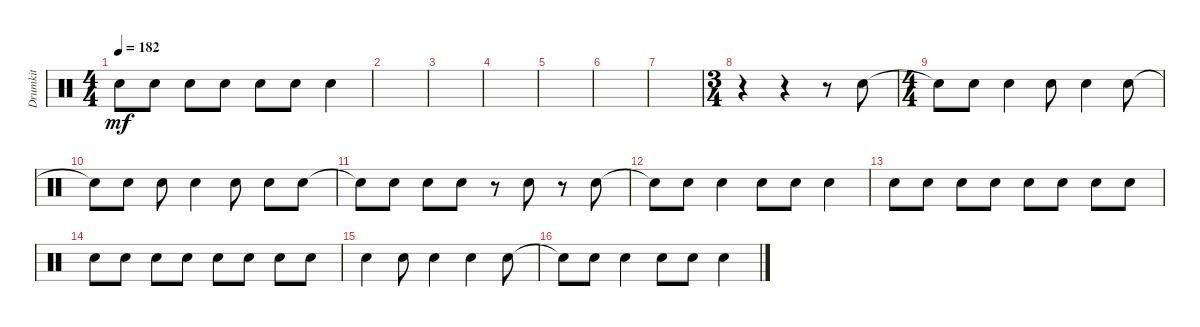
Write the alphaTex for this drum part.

\track ("Drumkit" "Drumkit") {instrument percussion}
\staff {score}
\articulation defaults
\ts (4 4)
\tempo 182
\clef neutral
\ks c "Snare (hit)".8{dy mf} "Snare (hit)".8 "Snare (hit)".8 "Snare (hit)".8 "Snare (hit)".8 "Snare (hit)".8 "Snare (hit)".4
|
|
|
|
|
|
|
\ts (3 4)
r.4 r.4 r.8 "Snare (hit)".8 |
\ts (4 4)
"Snare (hit)"{t}.8 "Snare (hit)".8 "Snare (hit)".4 "Snare (hit)".8 "Snare (hit)".4 "Snare (hit)".8 |
"Snare (hit)"{t}.8 "Snare (hit)".8 "Snare (hit)".8 "Snare (hit)".4 "Snare (hit)".8 "Snare (hit)".8 "Snare (hit)".8 |
"Snare (hit)"{t}.8 "Snare (hit)".8 "Snare (hit)".8 "Snare (hit)".8 r.8 "Snare (hit)".8 r.8 "Snare (hit)".8 |
"Snare (hit)"{t}.8 "Snare (hit)".8 "Snare (hit)".4 "Snare (hit)".8 "Snare (hit)".8 "Snare (hit)".4 |
"Snare (hit)".8 "Snare (hit)".8 "Snare (hit)".8 "Snare (hit)".8 "Snare (hit)".8 "Snare (hit)".8 "Snare (hit)".8 "Snare (hit)".8 |
"Snare (hit)".8 "Snare (hit)".8 "Snare (hit)".8 "Snare (hit)".8 "Snare (hit)".8 "Snare (hit)".8 "Snare (hit)".8 "Snare (hit)".8 |
"Snare (hit)".4 "Snare (hit)".8 "Snare (hit)".4 "Snare (hit)".4 "Snare (hit)".8 |
"Snare (hit)"{t}.8 "Snare (hit)".8 "Snare (hit)".4 "Snare (hit)".8 "Snare (hit)".8 "Snare (hit)".4
